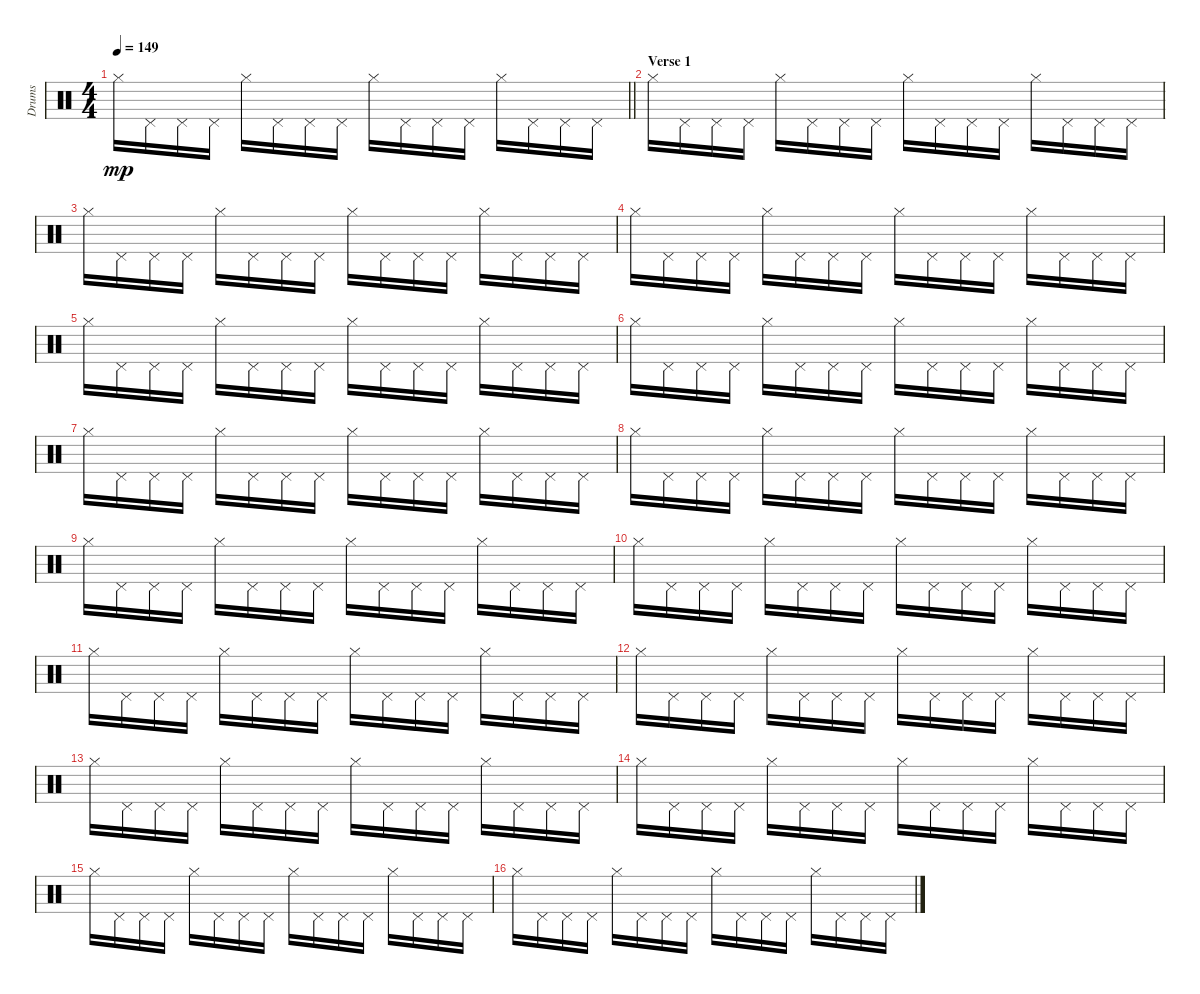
\track ("Drums" "Drums") {instrument percussion}
\staff {score}
\articulation defaults
\ts (4 4)
\tempo 149
\clef neutral
\barLineRight lightlight
\ks c "Hi-Hat (closed)".16{dy mp} "Pedal Hi-Hat (hit)".16 "Pedal Hi-Hat (hit)".16 "Pedal Hi-Hat (hit)".16 "Hi-Hat (closed)".16 "Pedal Hi-Hat (hit)".16 "Pedal Hi-Hat (hit)".16 "Pedal Hi-Hat (hit)".16 "Hi-Hat (closed)".16 "Pedal Hi-Hat (hit)".16 "Pedal Hi-Hat (hit)".16 "Pedal Hi-Hat (hit)".16 "Hi-Hat (closed)".16 "Pedal Hi-Hat (hit)".16 "Pedal Hi-Hat (hit)".16 "Pedal Hi-Hat (hit)".16
|
\section ("" "Verse 1")
"Hi-Hat (closed)".16 "Pedal Hi-Hat (hit)".16 "Pedal Hi-Hat (hit)".16 "Pedal Hi-Hat (hit)".16 "Hi-Hat (closed)".16 "Pedal Hi-Hat (hit)".16 "Pedal Hi-Hat (hit)".16 "Pedal Hi-Hat (hit)".16 "Hi-Hat (closed)".16 "Pedal Hi-Hat (hit)".16 "Pedal Hi-Hat (hit)".16 "Pedal Hi-Hat (hit)".16 "Hi-Hat (closed)".16 "Pedal Hi-Hat (hit)".16 "Pedal Hi-Hat (hit)".16 "Pedal Hi-Hat (hit)".16 |
"Hi-Hat (closed)".16 "Pedal Hi-Hat (hit)".16 "Pedal Hi-Hat (hit)".16 "Pedal Hi-Hat (hit)".16 "Hi-Hat (closed)".16 "Pedal Hi-Hat (hit)".16 "Pedal Hi-Hat (hit)".16 "Pedal Hi-Hat (hit)".16 "Hi-Hat (closed)".16 "Pedal Hi-Hat (hit)".16 "Pedal Hi-Hat (hit)".16 "Pedal Hi-Hat (hit)".16 "Hi-Hat (closed)".16 "Pedal Hi-Hat (hit)".16 "Pedal Hi-Hat (hit)".16 "Pedal Hi-Hat (hit)".16 |
"Hi-Hat (closed)".16 "Pedal Hi-Hat (hit)".16 "Pedal Hi-Hat (hit)".16 "Pedal Hi-Hat (hit)".16 "Hi-Hat (closed)".16 "Pedal Hi-Hat (hit)".16 "Pedal Hi-Hat (hit)".16 "Pedal Hi-Hat (hit)".16 "Hi-Hat (closed)".16 "Pedal Hi-Hat (hit)".16 "Pedal Hi-Hat (hit)".16 "Pedal Hi-Hat (hit)".16 "Hi-Hat (closed)".16 "Pedal Hi-Hat (hit)".16 "Pedal Hi-Hat (hit)".16 "Pedal Hi-Hat (hit)".16 |
"Hi-Hat (closed)".16 "Pedal Hi-Hat (hit)".16 "Pedal Hi-Hat (hit)".16 "Pedal Hi-Hat (hit)".16 "Hi-Hat (closed)".16 "Pedal Hi-Hat (hit)".16 "Pedal Hi-Hat (hit)".16 "Pedal Hi-Hat (hit)".16 "Hi-Hat (closed)".16 "Pedal Hi-Hat (hit)".16 "Pedal Hi-Hat (hit)".16 "Pedal Hi-Hat (hit)".16 "Hi-Hat (closed)".16 "Pedal Hi-Hat (hit)".16 "Pedal Hi-Hat (hit)".16 "Pedal Hi-Hat (hit)".16 |
"Hi-Hat (closed)".16 "Pedal Hi-Hat (hit)".16 "Pedal Hi-Hat (hit)".16 "Pedal Hi-Hat (hit)".16 "Hi-Hat (closed)".16 "Pedal Hi-Hat (hit)".16 "Pedal Hi-Hat (hit)".16 "Pedal Hi-Hat (hit)".16 "Hi-Hat (closed)".16 "Pedal Hi-Hat (hit)".16 "Pedal Hi-Hat (hit)".16 "Pedal Hi-Hat (hit)".16 "Hi-Hat (closed)".16 "Pedal Hi-Hat (hit)".16 "Pedal Hi-Hat (hit)".16 "Pedal Hi-Hat (hit)".16 |
"Hi-Hat (closed)".16 "Pedal Hi-Hat (hit)".16 "Pedal Hi-Hat (hit)".16 "Pedal Hi-Hat (hit)".16 "Hi-Hat (closed)".16 "Pedal Hi-Hat (hit)".16 "Pedal Hi-Hat (hit)".16 "Pedal Hi-Hat (hit)".16 "Hi-Hat (closed)".16 "Pedal Hi-Hat (hit)".16 "Pedal Hi-Hat (hit)".16 "Pedal Hi-Hat (hit)".16 "Hi-Hat (closed)".16 "Pedal Hi-Hat (hit)".16 "Pedal Hi-Hat (hit)".16 "Pedal Hi-Hat (hit)".16 |
"Hi-Hat (closed)".16 "Pedal Hi-Hat (hit)".16 "Pedal Hi-Hat (hit)".16 "Pedal Hi-Hat (hit)".16 "Hi-Hat (closed)".16 "Pedal Hi-Hat (hit)".16 "Pedal Hi-Hat (hit)".16 "Pedal Hi-Hat (hit)".16 "Hi-Hat (closed)".16 "Pedal Hi-Hat (hit)".16 "Pedal Hi-Hat (hit)".16 "Pedal Hi-Hat (hit)".16 "Hi-Hat (closed)".16 "Pedal Hi-Hat (hit)".16 "Pedal Hi-Hat (hit)".16 "Pedal Hi-Hat (hit)".16 |
"Hi-Hat (closed)".16 "Pedal Hi-Hat (hit)".16 "Pedal Hi-Hat (hit)".16 "Pedal Hi-Hat (hit)".16 "Hi-Hat (closed)".16 "Pedal Hi-Hat (hit)".16 "Pedal Hi-Hat (hit)".16 "Pedal Hi-Hat (hit)".16 "Hi-Hat (closed)".16 "Pedal Hi-Hat (hit)".16 "Pedal Hi-Hat (hit)".16 "Pedal Hi-Hat (hit)".16 "Hi-Hat (closed)".16 "Pedal Hi-Hat (hit)".16 "Pedal Hi-Hat (hit)".16 "Pedal Hi-Hat (hit)".16 |
"Hi-Hat (closed)".16 "Pedal Hi-Hat (hit)".16 "Pedal Hi-Hat (hit)".16 "Pedal Hi-Hat (hit)".16 "Hi-Hat (closed)".16 "Pedal Hi-Hat (hit)".16 "Pedal Hi-Hat (hit)".16 "Pedal Hi-Hat (hit)".16 "Hi-Hat (closed)".16 "Pedal Hi-Hat (hit)".16 "Pedal Hi-Hat (hit)".16 "Pedal Hi-Hat (hit)".16 "Hi-Hat (closed)".16 "Pedal Hi-Hat (hit)".16 "Pedal Hi-Hat (hit)".16 "Pedal Hi-Hat (hit)".16 |
"Hi-Hat (closed)".16 "Pedal Hi-Hat (hit)".16 "Pedal Hi-Hat (hit)".16 "Pedal Hi-Hat (hit)".16 "Hi-Hat (closed)".16 "Pedal Hi-Hat (hit)".16 "Pedal Hi-Hat (hit)".16 "Pedal Hi-Hat (hit)".16 "Hi-Hat (closed)".16 "Pedal Hi-Hat (hit)".16 "Pedal Hi-Hat (hit)".16 "Pedal Hi-Hat (hit)".16 "Hi-Hat (closed)".16 "Pedal Hi-Hat (hit)".16 "Pedal Hi-Hat (hit)".16 "Pedal Hi-Hat (hit)".16 |
"Hi-Hat (closed)".16 "Pedal Hi-Hat (hit)".16 "Pedal Hi-Hat (hit)".16 "Pedal Hi-Hat (hit)".16 "Hi-Hat (closed)".16 "Pedal Hi-Hat (hit)".16 "Pedal Hi-Hat (hit)".16 "Pedal Hi-Hat (hit)".16 "Hi-Hat (closed)".16 "Pedal Hi-Hat (hit)".16 "Pedal Hi-Hat (hit)".16 "Pedal Hi-Hat (hit)".16 "Hi-Hat (closed)".16 "Pedal Hi-Hat (hit)".16 "Pedal Hi-Hat (hit)".16 "Pedal Hi-Hat (hit)".16 |
"Hi-Hat (closed)".16 "Pedal Hi-Hat (hit)".16 "Pedal Hi-Hat (hit)".16 "Pedal Hi-Hat (hit)".16 "Hi-Hat (closed)".16 "Pedal Hi-Hat (hit)".16 "Pedal Hi-Hat (hit)".16 "Pedal Hi-Hat (hit)".16 "Hi-Hat (closed)".16 "Pedal Hi-Hat (hit)".16 "Pedal Hi-Hat (hit)".16 "Pedal Hi-Hat (hit)".16 "Hi-Hat (closed)".16 "Pedal Hi-Hat (hit)".16 "Pedal Hi-Hat (hit)".16 "Pedal Hi-Hat (hit)".16 |
"Hi-Hat (closed)".16 "Pedal Hi-Hat (hit)".16 "Pedal Hi-Hat (hit)".16 "Pedal Hi-Hat (hit)".16 "Hi-Hat (closed)".16 "Pedal Hi-Hat (hit)".16 "Pedal Hi-Hat (hit)".16 "Pedal Hi-Hat (hit)".16 "Hi-Hat (closed)".16 "Pedal Hi-Hat (hit)".16 "Pedal Hi-Hat (hit)".16 "Pedal Hi-Hat (hit)".16 "Hi-Hat (closed)".16 "Pedal Hi-Hat (hit)".16 "Pedal Hi-Hat (hit)".16 "Pedal Hi-Hat (hit)".16 |
"Hi-Hat (closed)".16 "Pedal Hi-Hat (hit)".16 "Pedal Hi-Hat (hit)".16 "Pedal Hi-Hat (hit)".16 "Hi-Hat (closed)".16 "Pedal Hi-Hat (hit)".16 "Pedal Hi-Hat (hit)".16 "Pedal Hi-Hat (hit)".16 "Hi-Hat (closed)".16 "Pedal Hi-Hat (hit)".16 "Pedal Hi-Hat (hit)".16 "Pedal Hi-Hat (hit)".16 "Hi-Hat (closed)".16 "Pedal Hi-Hat (hit)".16 "Pedal Hi-Hat (hit)".16 "Pedal Hi-Hat (hit)".16 |
"Hi-Hat (closed)".16 "Pedal Hi-Hat (hit)".16 "Pedal Hi-Hat (hit)".16 "Pedal Hi-Hat (hit)".16 "Hi-Hat (closed)".16 "Pedal Hi-Hat (hit)".16 "Pedal Hi-Hat (hit)".16 "Pedal Hi-Hat (hit)".16 "Hi-Hat (closed)".16 "Pedal Hi-Hat (hit)".16 "Pedal Hi-Hat (hit)".16 "Pedal Hi-Hat (hit)".16 "Hi-Hat (closed)".16 "Pedal Hi-Hat (hit)".16 "Pedal Hi-Hat (hit)".16 "Pedal Hi-Hat (hit)".16
